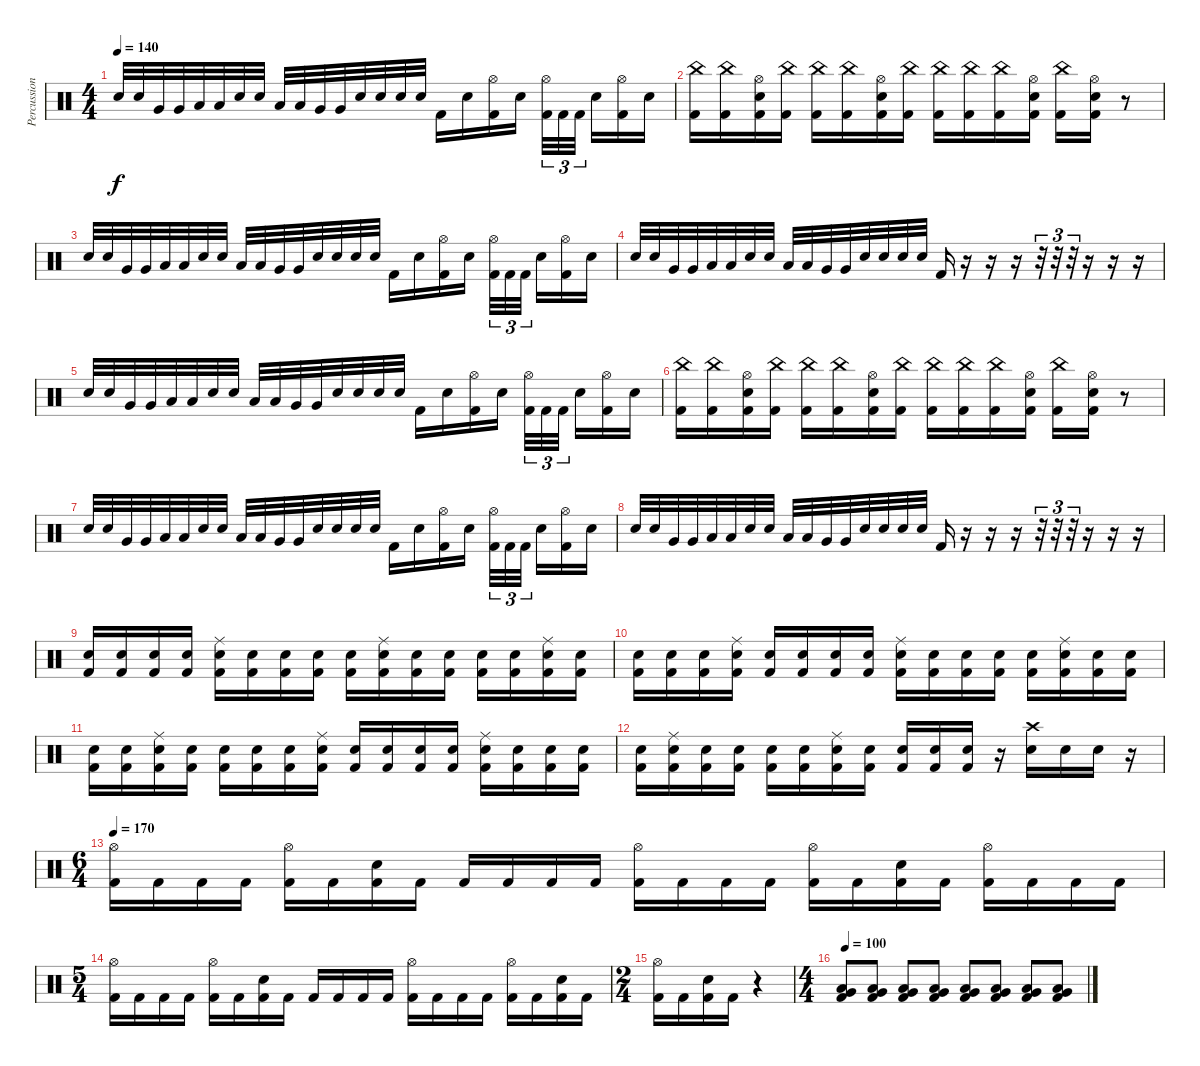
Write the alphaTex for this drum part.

\track ("Percussion" "Percussion") {instrument percussion}
\staff {score}
\articulation defaults
\ts (4 4)
\tempo 140
\clef neutral
\ks c "Snare (hit) 2".32{dy f} "Snare (hit) 2".32 "Very Low Tom (hit)".32 "Very Low Tom (hit)".32 "Low Floor Tom (hit)".32 "Low Floor Tom (hit)".32 "Snare (hit) 2".32 "Snare (hit) 2".32 "Low Tom (hit)".32 "Low Tom (hit)".32 "Very Low Tom (hit)".32 "Very Low Tom (hit)".32 "Snare (hit) 2".32 "Snare (hit) 2".32 "Snare (hit) 2".32 "Snare (hit) 2".32 "Kick (hit) 2".16 "Snare (hit) 2".16
("Hi-Hat (open)" "Kick (hit) 2").16 "Snare (hit) 2".16 ("Hi-Hat (open)" "Kick (hit) 2").32{tu (3 2)} "Kick (hit) 2".32{tu (3 2)} "Kick (hit) 2".32{tu (3 2)} "Snare (hit) 2".16 ("Hi-Hat (open)" "Kick (hit) 2").16 "Snare (hit) 2".16 |
("China (hit)" "Kick (hit) 2").16 ("China (hit)" "Kick (hit) 2").16 ("Hi-Hat (open)" "Snare (hit) 2" "Kick (hit) 2").16 ("China (hit)" "Kick (hit) 2").16 ("China (hit)" "Kick (hit) 2").16 ("China (hit)" "Kick (hit) 2").16 ("Hi-Hat (open)" "Snare (hit) 2" "Kick (hit) 2").16 ("China (hit)" "Kick (hit) 2").16 ("China (hit)" "Kick (hit) 2").16 ("China (hit)" "Kick (hit) 2").16 ("China (hit)" "Kick (hit) 2").16 ("Hi-Hat (open)" "Snare (hit) 2" "Kick (hit) 2").16 ("China (hit)" "Kick (hit) 2").16 ("Hi-Hat (open)" "Snare (hit) 2" "Kick (hit) 2").16 r.8 |
"Snare (hit) 2".32 "Snare (hit) 2".32 "Very Low Tom (hit)".32 "Very Low Tom (hit)".32 "Low Floor Tom (hit)".32 "Low Floor Tom (hit)".32 "Snare (hit) 2".32 "Snare (hit) 2".32 "Low Tom (hit)".32 "Low Tom (hit)".32 "Very Low Tom (hit)".32 "Very Low Tom (hit)".32 "Snare (hit) 2".32 "Snare (hit) 2".32 "Snare (hit) 2".32 "Snare (hit) 2".32 "Kick (hit) 2".16 "Snare (hit) 2".16 ("Hi-Hat (open)" "Kick (hit) 2").16 "Snare (hit) 2".16 ("Hi-Hat (open)" "Kick (hit) 2").32{tu (3 2)} "Kick (hit) 2".32{tu (3 2)} "Kick (hit) 2".32{tu (3 2)} "Snare (hit) 2".16 ("Hi-Hat (open)" "Kick (hit) 2").16 "Snare (hit) 2".16 |
"Snare (hit) 2".32 "Snare (hit) 2".32 "Very Low Tom (hit)".32 "Very Low Tom (hit)".32 "Low Floor Tom (hit)".32 "Low Floor Tom (hit)".32 "Snare (hit) 2".32 "Snare (hit) 2".32 "Low Tom (hit)".32 "Low Tom (hit)".32 "Very Low Tom (hit)".32 "Very Low Tom (hit)".32 "Snare (hit) 2".32 "Snare (hit) 2".32 "Snare (hit) 2".32 "Snare (hit) 2".32 "Kick (hit) 2".16 r.16 r.16 r.16 r.32{tu (3 2)} r.32{tu (3 2)} r.32{tu (3 2)} r.16 r.16 r.16 |
"Snare (hit) 2".32 "Snare (hit) 2".32 "Very Low Tom (hit)".32 "Very Low Tom (hit)".32 "Low Floor Tom (hit)".32 "Low Floor Tom (hit)".32 "Snare (hit) 2".32 "Snare (hit) 2".32 "Low Tom (hit)".32 "Low Tom (hit)".32 "Very Low Tom (hit)".32 "Very Low Tom (hit)".32 "Snare (hit) 2".32 "Snare (hit) 2".32 "Snare (hit) 2".32 "Snare (hit) 2".32 "Kick (hit) 2".16 "Snare (hit) 2".16 ("Hi-Hat (open)" "Kick (hit) 2").16 "Snare (hit) 2".16 ("Hi-Hat (open)" "Kick (hit) 2").32{tu (3 2)} "Kick (hit) 2".32{tu (3 2)} "Kick (hit) 2".32{tu (3 2)} "Snare (hit) 2".16 ("Hi-Hat (open)" "Kick (hit) 2").16 "Snare (hit) 2".16 |
("China (hit)" "Kick (hit) 2").16 ("China (hit)" "Kick (hit) 2").16 ("Hi-Hat (open)" "Snare (hit) 2" "Kick (hit) 2").16 ("China (hit)" "Kick (hit) 2").16 ("China (hit)" "Kick (hit) 2").16 ("China (hit)" "Kick (hit) 2").16 ("Hi-Hat (open)" "Snare (hit) 2" "Kick (hit) 2").16 ("China (hit)" "Kick (hit) 2").16 ("China (hit)" "Kick (hit) 2").16 ("China (hit)" "Kick (hit) 2").16 ("China (hit)" "Kick (hit) 2").16 ("Hi-Hat (open)" "Snare (hit) 2" "Kick (hit) 2").16 ("China (hit)" "Kick (hit) 2").16 ("Hi-Hat (open)" "Snare (hit) 2" "Kick (hit) 2").16 r.8 |
"Snare (hit) 2".32 "Snare (hit) 2".32 "Very Low Tom (hit)".32 "Very Low Tom (hit)".32 "Low Floor Tom (hit)".32 "Low Floor Tom (hit)".32 "Snare (hit) 2".32 "Snare (hit) 2".32 "Low Tom (hit)".32 "Low Tom (hit)".32 "Very Low Tom (hit)".32 "Very Low Tom (hit)".32 "Snare (hit) 2".32 "Snare (hit) 2".32 "Snare (hit) 2".32 "Snare (hit) 2".32 "Kick (hit) 2".16 "Snare (hit) 2".16 ("Hi-Hat (open)" "Kick (hit) 2").16 "Snare (hit) 2".16 ("Hi-Hat (open)" "Kick (hit) 2").32{tu (3 2)} "Kick (hit) 2".32{tu (3 2)} "Kick (hit) 2".32{tu (3 2)} "Snare (hit) 2".16 ("Hi-Hat (open)" "Kick (hit) 2").16 "Snare (hit) 2".16 |
"Snare (hit) 2".32 "Snare (hit) 2".32 "Very Low Tom (hit)".32 "Very Low Tom (hit)".32 "Low Floor Tom (hit)".32 "Low Floor Tom (hit)".32 "Snare (hit) 2".32 "Snare (hit) 2".32 "Low Tom (hit)".32 "Low Tom (hit)".32 "Very Low Tom (hit)".32 "Very Low Tom (hit)".32 "Snare (hit) 2".32 "Snare (hit) 2".32 "Snare (hit) 2".32 "Snare (hit) 2".32 "Kick (hit) 2".16 r.16 r.16 r.16 r.32{tu (3 2)} r.32{tu (3 2)} r.32{tu (3 2)} r.16 r.16 r.16 |
("Snare (hit) 2" "Kick (hit) 2").16 ("Snare (hit) 2" "Kick (hit) 2").16 ("Snare (hit) 2" "Kick (hit) 2").16 ("Snare (hit) 2" "Kick (hit) 2").16 ("Ride (middle)" "Snare (hit) 2" "Kick (hit) 2").16 ("Snare (hit) 2" "Kick (hit) 2").16 ("Snare (hit) 2" "Kick (hit) 2").16 ("Snare (hit) 2" "Kick (hit) 2").16 ("Snare (hit) 2" "Kick (hit) 2").16 ("Ride (middle)" "Snare (hit) 2" "Kick (hit) 2").16 ("Snare (hit) 2" "Kick (hit) 2").16 ("Snare (hit) 2" "Kick (hit) 2").16 ("Snare (hit) 2" "Kick (hit) 2").16 ("Snare (hit) 2" "Kick (hit) 2").16 ("Ride (middle)" "Snare (hit) 2" "Kick (hit) 2").16 ("Snare (hit) 2" "Kick (hit) 2").16 |
("Snare (hit) 2" "Kick (hit) 2").16 ("Snare (hit) 2" "Kick (hit) 2").16 ("Snare (hit) 2" "Kick (hit) 2").16 ("Ride (middle)" "Snare (hit) 2" "Kick (hit) 2").16 ("Snare (hit) 2" "Kick (hit) 2").16 ("Snare (hit) 2" "Kick (hit) 2").16 ("Snare (hit) 2" "Kick (hit) 2").16 ("Snare (hit) 2" "Kick (hit) 2").16 ("Ride (middle)" "Snare (hit) 2" "Kick (hit) 2").16 ("Snare (hit) 2" "Kick (hit) 2").16 ("Snare (hit) 2" "Kick (hit) 2").16 ("Snare (hit) 2" "Kick (hit) 2").16 ("Snare (hit) 2" "Kick (hit) 2").16 ("Ride (middle)" "Snare (hit) 2" "Kick (hit) 2").16 ("Snare (hit) 2" "Kick (hit) 2").16 ("Snare (hit) 2" "Kick (hit) 2").16 |
("Snare (hit) 2" "Kick (hit) 2").16 ("Snare (hit) 2" "Kick (hit) 2").16 ("Ride (middle)" "Snare (hit) 2" "Kick (hit) 2").16 ("Snare (hit) 2" "Kick (hit) 2").16 ("Snare (hit) 2" "Kick (hit) 2").16 ("Snare (hit) 2" "Kick (hit) 2").16 ("Snare (hit) 2" "Kick (hit) 2").16 ("Ride (middle)" "Snare (hit) 2" "Kick (hit) 2").16 ("Snare (hit) 2" "Kick (hit) 2").16 ("Snare (hit) 2" "Kick (hit) 2").16 ("Snare (hit) 2" "Kick (hit) 2").16 ("Snare (hit) 2" "Kick (hit) 2").16 ("Ride (middle)" "Snare (hit) 2" "Kick (hit) 2").16 ("Snare (hit) 2" "Kick (hit) 2").16 ("Snare (hit) 2" "Kick (hit) 2").16 ("Snare (hit) 2" "Kick (hit) 2").16 |
("Snare (hit) 2" "Kick (hit) 2").16 ("Ride (middle)" "Snare (hit) 2" "Kick (hit) 2").16 ("Snare (hit) 2" "Kick (hit) 2").16 ("Snare (hit) 2" "Kick (hit) 2").16 ("Snare (hit) 2" "Kick (hit) 2").16 ("Snare (hit) 2" "Kick (hit) 2").16 ("Ride (middle)" "Snare (hit) 2" "Kick (hit) 2").16 ("Snare (hit) 2" "Kick (hit) 2").16 ("Snare (hit) 2" "Kick (hit) 2").16 ("Snare (hit) 2" "Kick (hit) 2").16 ("Snare (hit) 2" "Kick (hit) 2").16 r.16 ("Crash high (hit)" "Snare (hit) 2").16 "Snare (hit) 2".16 "Snare (hit) 2".16 r.16 |
\ts (6 4)
\tempo 170
("Hi-Hat (open)" "Kick (hit) 2").16 "Kick (hit) 2".16 "Kick (hit) 2".16 "Kick (hit) 2".16 ("Hi-Hat (open)" "Kick (hit) 2").16 "Kick (hit) 2".16 ("Snare (hit) 2" "Kick (hit) 2").16 "Kick (hit) 2".16 "Kick (hit) 2".16 "Kick (hit) 2".16 "Kick (hit) 2".16 "Kick (hit) 2".16 ("Hi-Hat (open)" "Kick (hit) 2").16 "Kick (hit) 2".16 "Kick (hit) 2".16 "Kick (hit) 2".16 ("Hi-Hat (open)" "Kick (hit) 2").16 "Kick (hit) 2".16 ("Snare (hit) 2" "Kick (hit) 2").16 "Kick (hit) 2".16 ("Hi-Hat (open)" "Kick (hit) 2").16 "Kick (hit) 2".16 "Kick (hit) 2".16 "Kick (hit) 2".16 |
\ts (5 4)
("Hi-Hat (open)" "Kick (hit) 2").16 "Kick (hit) 2".16 "Kick (hit) 2".16 "Kick (hit) 2".16 ("Hi-Hat (open)" "Kick (hit) 2").16 "Kick (hit) 2".16 ("Snare (hit) 2" "Kick (hit) 2").16 "Kick (hit) 2".16 "Kick (hit) 2".16 "Kick (hit) 2".16 "Kick (hit) 2".16 "Kick (hit) 2".16 ("Hi-Hat (open)" "Kick (hit) 2").16 "Kick (hit) 2".16 "Kick (hit) 2".16 "Kick (hit) 2".16 ("Hi-Hat (open)" "Kick (hit) 2").16 "Kick (hit) 2".16 ("Snare (hit) 2" "Kick (hit) 2").16 "Kick (hit) 2".16 |
\ts (2 4)
("Hi-Hat (open)" "Kick (hit) 2").16 "Kick (hit) 2".16 ("Snare (hit) 2" "Kick (hit) 2").16 "Kick (hit) 2".16 r.4 |
\ts (4 4)
\tempo 100
("Kick (hit) 2" "Very Low Tom (hit)" "Low Tom (hit)").8 ("Kick (hit) 2" "Very Low Tom (hit)" "Low Tom (hit)").8 ("Kick (hit) 2" "Very Low Tom (hit)" "Low Tom (hit)").8 ("Kick (hit) 2" "Very Low Tom (hit)" "Low Tom (hit)").8 ("Kick (hit) 2" "Very Low Tom (hit)" "Low Tom (hit)").8 ("Kick (hit) 2" "Very Low Tom (hit)" "Low Tom (hit)").8 ("Kick (hit) 2" "Very Low Tom (hit)" "Low Tom (hit)").8 ("Kick (hit) 2" "Very Low Tom (hit)" "Low Tom (hit)").8
